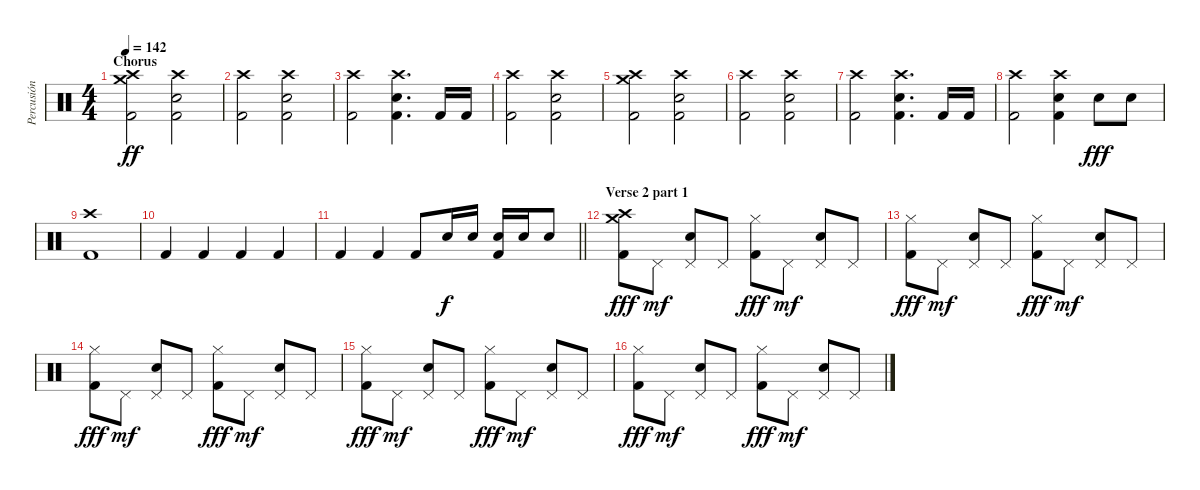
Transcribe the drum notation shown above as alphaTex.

\track ("Percusión" "Percusión") {instrument percussion}
\staff {score}
\articulation defaults
\ts (4 4)
\section ("" "Chorus")
\tempo 142
\clef neutral
\ks c
("Crash medium (hit)" "Crash high (hit)" "Kick (hit) 2").2{dy ff} ("Crash high (hit)" "Electric Snare (hit)" "Kick (hit) 2").2 |
("Crash high (hit)" "Kick (hit) 2").2 ("Crash high (hit)" "Electric Snare (hit)" "Kick (hit) 2").2 |
("Crash high (hit)" "Kick (hit) 2").2 ("Crash high (hit)" "Electric Snare (hit)" "Kick (hit) 2").4{d} "Kick (hit) 2".16 "Kick (hit) 2".16 |
("Crash high (hit)" "Kick (hit) 2").2 ("Crash high (hit)" "Electric Snare (hit)" "Kick (hit) 2").2 |
("Crash medium (hit)" "Crash high (hit)" "Kick (hit) 2").2 ("Crash high (hit)" "Electric Snare (hit)" "Kick (hit) 2").2 |
("Crash high (hit)" "Kick (hit) 2").2 ("Crash high (hit)" "Electric Snare (hit)" "Kick (hit) 2").2 |
("Crash high (hit)" "Kick (hit) 2").2 ("Crash high (hit)" "Electric Snare (hit)" "Kick (hit) 2").4{d} "Kick (hit) 2".16 "Kick (hit) 2".16 |
("Crash high (hit)" "Kick (hit) 2").2 ("Crash high (hit)" "Electric Snare (hit)" "Kick (hit) 2").4 "Electric Snare (hit)".8{dy fff} "Electric Snare (hit)".8 |
("Crash high (hit)" "Kick (hit) 2").1 |
"Kick (hit) 2".4 "Kick (hit) 2".4 "Kick (hit) 2".4 "Kick (hit) 2".4 |
\barLineRight lightlight "Kick (hit) 2".4 "Kick (hit) 2".4 "Kick (hit) 2".8 "Electric Snare (hit)".16{dy f} "Electric Snare (hit)".16
("Electric Snare (hit)" "Kick (hit) 2").16 "Electric Snare (hit)".16 "Electric Snare (hit)".8 |
\section ("" "Verse 2 part 1")
("Crash medium (hit)" "Crash high (hit)" "Kick (hit) 2").8{dy fff} "Pedal Hi-Hat (hit)".8{dy mf} ("Pedal Hi-Hat (hit)" "Electric Snare (hit)").8 "Pedal Hi-Hat (hit)".8 ("Hi-Hat (closed)" "Kick (hit) 2").8{dy fff} "Pedal Hi-Hat (hit)".8{dy mf} ("Pedal Hi-Hat (hit)" "Electric Snare (hit)").8 "Pedal Hi-Hat (hit)".8 |
("Hi-Hat (closed)" "Kick (hit) 2").8{dy fff} "Pedal Hi-Hat (hit)".8{dy mf} ("Pedal Hi-Hat (hit)" "Electric Snare (hit)").8 "Pedal Hi-Hat (hit)".8 ("Hi-Hat (closed)" "Kick (hit) 2").8{dy fff} "Pedal Hi-Hat (hit)".8{dy mf} ("Pedal Hi-Hat (hit)" "Electric Snare (hit)").8 "Pedal Hi-Hat (hit)".8 |
("Hi-Hat (closed)" "Kick (hit) 2").8{dy fff} "Pedal Hi-Hat (hit)".8{dy mf} ("Pedal Hi-Hat (hit)" "Electric Snare (hit)").8 "Pedal Hi-Hat (hit)".8 ("Hi-Hat (closed)" "Kick (hit) 2").8{dy fff} "Pedal Hi-Hat (hit)".8{dy mf} ("Pedal Hi-Hat (hit)" "Electric Snare (hit)").8 "Pedal Hi-Hat (hit)".8 |
("Hi-Hat (closed)" "Kick (hit) 2").8{dy fff} "Pedal Hi-Hat (hit)".8{dy mf} ("Pedal Hi-Hat (hit)" "Electric Snare (hit)").8 "Pedal Hi-Hat (hit)".8 ("Hi-Hat (closed)" "Kick (hit) 2").8{dy fff} "Pedal Hi-Hat (hit)".8{dy mf} ("Pedal Hi-Hat (hit)" "Electric Snare (hit)").8 "Pedal Hi-Hat (hit)".8 |
("Hi-Hat (closed)" "Kick (hit) 2").8{dy fff} "Pedal Hi-Hat (hit)".8{dy mf} ("Pedal Hi-Hat (hit)" "Electric Snare (hit)").8 "Pedal Hi-Hat (hit)".8 ("Hi-Hat (closed)" "Kick (hit) 2").8{dy fff} "Pedal Hi-Hat (hit)".8{dy mf} ("Pedal Hi-Hat (hit)" "Electric Snare (hit)").8 "Pedal Hi-Hat (hit)".8
